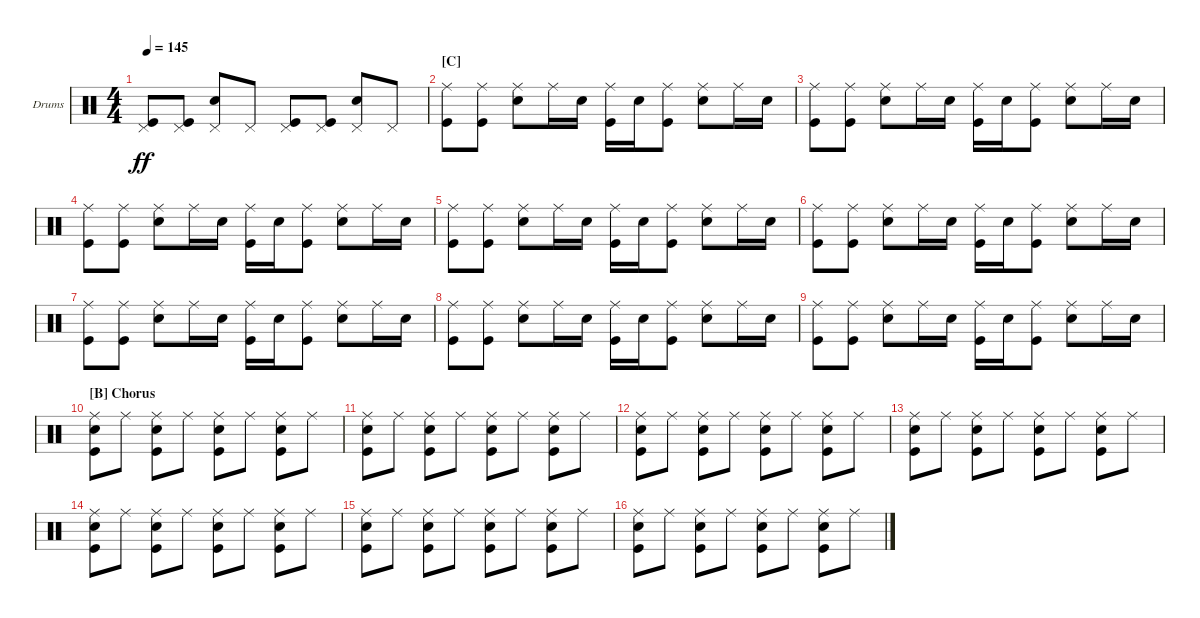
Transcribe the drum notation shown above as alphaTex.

\bracketExtendMode groupsimilarinstruments
\firstSystemTrackNameOrientation horizontal
\otherSystemsTrackNameOrientation horizontal
\track ("Fabrizio Moretti" "Drums") {instrument percussion}
\staff {score}
\articulation defaults
\ts (4 4)
\tempo 145
\clef neutral
\ks c
("Pedal Hi-Hat (hit)" "Kick (hit)").8{dy ff} ("Pedal Hi-Hat (hit)" "Kick (hit)").8 ("Pedal Hi-Hat (hit)" "Snare (hit) 2").8 "Pedal Hi-Hat (hit)".8 ("Pedal Hi-Hat (hit)" "Kick (hit)").8 ("Pedal Hi-Hat (hit)" "Kick (hit)").8 ("Pedal Hi-Hat (hit)" "Snare (hit) 2").8 "Pedal Hi-Hat (hit)".8 |
\section ("C" "")
("Ride (middle)" "Kick (hit)").8 ("Ride (middle)" "Kick (hit)").8 ("Ride (middle)" "Snare (hit) 2").8 "Ride (middle)".16 "Snare (hit) 2".16 ("Ride (middle)" "Kick (hit)").16 "Snare (hit) 2".16 ("Ride (middle)" "Kick (hit)").8 ("Ride (middle)" "Snare (hit) 2").8 "Ride (middle)".16 "Snare (hit) 2".16 |
("Ride (middle)" "Kick (hit)").8 ("Ride (middle)" "Kick (hit)").8 ("Ride (middle)" "Snare (hit) 2").8 "Ride (middle)".16 "Snare (hit) 2".16 ("Ride (middle)" "Kick (hit)").16 "Snare (hit) 2".16 ("Ride (middle)" "Kick (hit)").8 ("Ride (middle)" "Snare (hit) 2").8 "Ride (middle)".16 "Snare (hit) 2".16 |
("Ride (middle)" "Kick (hit)").8 ("Ride (middle)" "Kick (hit)").8 ("Ride (middle)" "Snare (hit) 2").8 "Ride (middle)".16 "Snare (hit) 2".16 ("Ride (middle)" "Kick (hit)").16 "Snare (hit) 2".16 ("Ride (middle)" "Kick (hit)").8 ("Ride (middle)" "Snare (hit) 2").8 "Ride (middle)".16 "Snare (hit) 2".16 |
("Ride (middle)" "Kick (hit)").8 ("Ride (middle)" "Kick (hit)").8 ("Ride (middle)" "Snare (hit) 2").8 "Ride (middle)".16 "Snare (hit) 2".16 ("Ride (middle)" "Kick (hit)").16 "Snare (hit) 2".16 ("Ride (middle)" "Kick (hit)").8 ("Ride (middle)" "Snare (hit) 2").8 "Ride (middle)".16 "Snare (hit) 2".16 |
("Ride (middle)" "Kick (hit)").8 ("Ride (middle)" "Kick (hit)").8 ("Ride (middle)" "Snare (hit) 2").8 "Ride (middle)".16 "Snare (hit) 2".16 ("Ride (middle)" "Kick (hit)").16 "Snare (hit) 2".16 ("Ride (middle)" "Kick (hit)").8 ("Ride (middle)" "Snare (hit) 2").8 "Ride (middle)".16 "Snare (hit) 2".16 |
("Ride (middle)" "Kick (hit)").8 ("Ride (middle)" "Kick (hit)").8 ("Ride (middle)" "Snare (hit) 2").8 "Ride (middle)".16 "Snare (hit) 2".16 ("Ride (middle)" "Kick (hit)").16 "Snare (hit) 2".16 ("Ride (middle)" "Kick (hit)").8 ("Ride (middle)" "Snare (hit) 2").8 "Ride (middle)".16 "Snare (hit) 2".16 |
("Ride (middle)" "Kick (hit)").8 ("Ride (middle)" "Kick (hit)").8 ("Ride (middle)" "Snare (hit) 2").8 "Ride (middle)".16 "Snare (hit) 2".16 ("Ride (middle)" "Kick (hit)").16 "Snare (hit) 2".16 ("Ride (middle)" "Kick (hit)").8 ("Ride (middle)" "Snare (hit) 2").8 "Ride (middle)".16 "Snare (hit) 2".16 |
("Ride (middle)" "Kick (hit)").8 ("Ride (middle)" "Kick (hit)").8 ("Ride (middle)" "Snare (hit) 2").8 "Ride (middle)".16 "Snare (hit) 2".16 ("Ride (middle)" "Kick (hit)").16 "Snare (hit) 2".16 ("Ride (middle)" "Kick (hit)").8 ("Ride (middle)" "Snare (hit) 2").8 "Ride (middle)".16 "Snare (hit) 2".16 |
\section ("B" "Chorus")
("Ride (middle)" "Snare (hit) 2" "Kick (hit)").8 "Ride (middle)".8 ("Ride (middle)" "Snare (hit) 2" "Kick (hit)").8 "Ride (middle)".8 ("Ride (middle)" "Snare (hit) 2" "Kick (hit)").8 "Ride (middle)".8 ("Ride (middle)" "Snare (hit) 2" "Kick (hit)").8 "Ride (middle)".8 |
("Ride (middle)" "Snare (hit) 2" "Kick (hit)").8 "Ride (middle)".8 ("Ride (middle)" "Snare (hit) 2" "Kick (hit)").8 "Ride (middle)".8 ("Ride (middle)" "Snare (hit) 2" "Kick (hit)").8 "Ride (middle)".8 ("Ride (middle)" "Snare (hit) 2" "Kick (hit)").8 "Ride (middle)".8 |
("Ride (middle)" "Snare (hit) 2" "Kick (hit)").8 "Ride (middle)".8 ("Ride (middle)" "Snare (hit) 2" "Kick (hit)").8 "Ride (middle)".8 ("Ride (middle)" "Snare (hit) 2" "Kick (hit)").8 "Ride (middle)".8 ("Ride (middle)" "Snare (hit) 2" "Kick (hit)").8 "Ride (middle)".8 |
("Ride (middle)" "Snare (hit) 2" "Kick (hit)").8 "Ride (middle)".8 ("Ride (middle)" "Snare (hit) 2" "Kick (hit)").8 "Ride (middle)".8 ("Ride (middle)" "Snare (hit) 2" "Kick (hit)").8 "Ride (middle)".8 ("Ride (middle)" "Snare (hit) 2" "Kick (hit)").8 "Ride (middle)".8 |
("Ride (middle)" "Snare (hit) 2" "Kick (hit)").8 "Ride (middle)".8 ("Ride (middle)" "Snare (hit) 2" "Kick (hit)").8 "Ride (middle)".8 ("Ride (middle)" "Snare (hit) 2" "Kick (hit)").8 "Ride (middle)".8 ("Ride (middle)" "Snare (hit) 2" "Kick (hit)").8 "Ride (middle)".8 |
("Ride (middle)" "Snare (hit) 2" "Kick (hit)").8 "Ride (middle)".8 ("Ride (middle)" "Snare (hit) 2" "Kick (hit)").8 "Ride (middle)".8 ("Ride (middle)" "Snare (hit) 2" "Kick (hit)").8 "Ride (middle)".8 ("Ride (middle)" "Snare (hit) 2" "Kick (hit)").8 "Ride (middle)".8 |
("Ride (middle)" "Snare (hit) 2" "Kick (hit)").8 "Ride (middle)".8 ("Ride (middle)" "Snare (hit) 2" "Kick (hit)").8 "Ride (middle)".8 ("Ride (middle)" "Snare (hit) 2" "Kick (hit)").8 "Ride (middle)".8 ("Ride (middle)" "Snare (hit) 2" "Kick (hit)").8 "Ride (middle)".8
